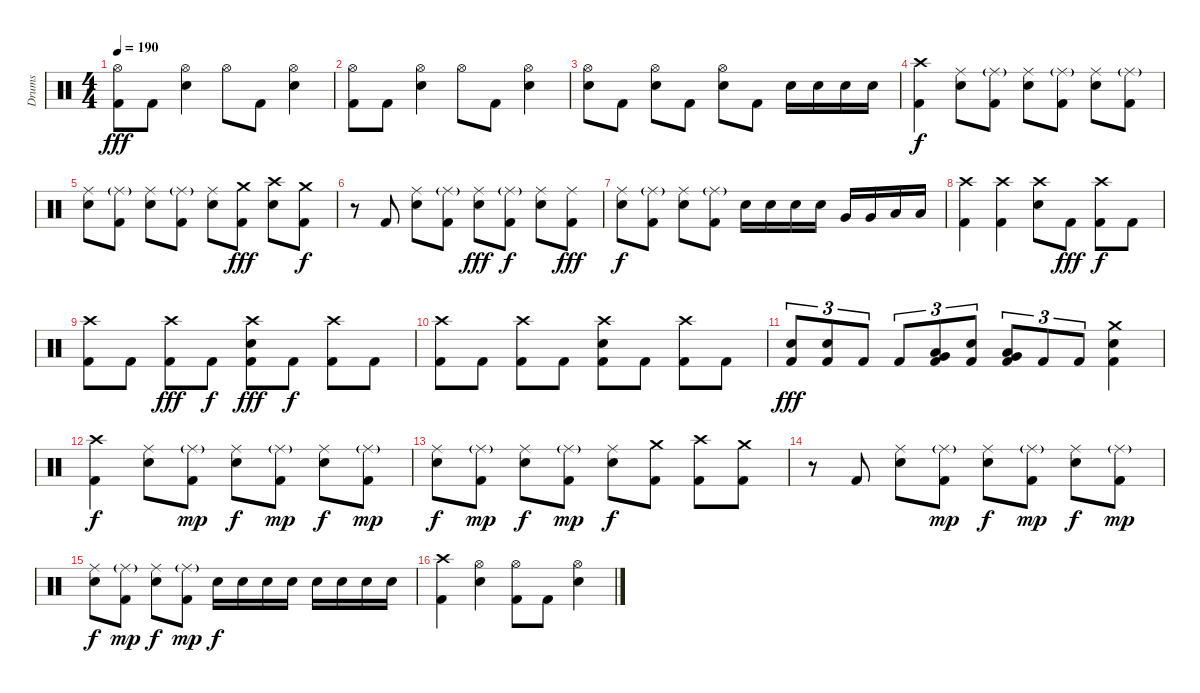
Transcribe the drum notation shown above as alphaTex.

\track ("Drums" "Drums") {instrument percussion}
\staff {score}
\articulation defaults
\ts (4 4)
\tempo 190
\clef neutral
\ks c
("Hi-Hat (open)" "Kick (hit) 2").8{dy fff} "Kick (hit) 2".8 ("Hi-Hat (open)" "Electric Snare (hit)").4 "Hi-Hat (open)".8 "Kick (hit) 2".8 ("Hi-Hat (open)" "Electric Snare (hit)").4 |
("Hi-Hat (open)" "Kick (hit) 2").8 "Kick (hit) 2".8 ("Hi-Hat (open)" "Electric Snare (hit)").4 "Hi-Hat (open)".8 "Kick (hit) 2".8 ("Hi-Hat (open)" "Electric Snare (hit)").4 |
("Hi-Hat (open)" "Electric Snare (hit)").8 "Kick (hit) 2".8 ("Hi-Hat (open)" "Electric Snare (hit)").8 "Kick (hit) 2".8 ("Hi-Hat (open)" "Electric Snare (hit)").8 "Kick (hit) 2".8 "Electric Snare (hit)".16 "Electric Snare (hit)".16 "Electric Snare (hit)".16 "Electric Snare (hit)".16 |
("Crash high (hit)" "Kick (hit) 2").4{dy f} ("Ride (middle)" "Electric Snare (hit)").8 ("Ride (middle)"{g} "Kick (hit) 2").8 ("Ride (middle)" "Electric Snare (hit)").8 ("Ride (middle)"{g} "Kick (hit) 2").8 ("Ride (middle)" "Electric Snare (hit)").8 ("Ride (middle)"{g} "Kick (hit) 2").8 |
("Ride (middle)" "Electric Snare (hit)").8 ("Ride (middle)"{g} "Kick (hit) 2").8 ("Ride (middle)" "Electric Snare (hit)").8 ("Ride (middle)"{g} "Kick (hit) 2").8 ("Ride (middle)" "Electric Snare (hit)").8 ("Crash medium (hit)" "Kick (hit) 2").8{dy fff} ("Crash high (hit)" "Electric Snare (hit)").8 ("Crash medium (hit)" "Kick (hit) 2").8{dy f} |
r.8 "Kick (hit) 2".8 ("Ride (middle)" "Electric Snare (hit)").8 ("Ride (middle)"{g} "Kick (hit) 2").8 ("Ride (middle)" "Electric Snare (hit)").8{dy fff} ("Ride (middle)"{g} "Kick (hit) 2").8{dy f} ("Ride (middle)" "Electric Snare (hit)").8 ("Ride (middle)" "Kick (hit) 2").8{dy fff} |
("Ride (middle)" "Electric Snare (hit)").8{dy f} ("Ride (middle)"{g} "Kick (hit) 2").8 ("Ride (middle)" "Electric Snare (hit)").8 ("Ride (middle)"{g} "Kick (hit) 2").8 "Electric Snare (hit)".16 "Electric Snare (hit)".16 "Electric Snare (hit)".16 "Electric Snare (hit)".16 "Very Low Tom (hit)".16 "Very Low Tom (hit)".16 "Low Floor Tom (hit)".16 "Low Floor Tom (hit)".16 |
("Crash high (hit)" "Kick (hit) 2").4 ("Crash high (hit)" "Kick (hit) 2").4 ("Crash high (hit)" "Electric Snare (hit)").8 "Kick (hit) 2".8{dy fff} ("Crash high (hit)" "Kick (hit) 2").8{dy f} "Kick (hit) 2".8 |
("Crash high (hit)" "Kick (hit) 2").8 "Kick (hit) 2".8 ("Crash high (hit)" "Kick (hit) 2").8{dy fff} "Kick (hit) 2".8{dy f} ("Crash high (hit)" "Electric Snare (hit)" "Kick (hit) 2").8{dy fff} "Kick (hit) 2".8{dy f} ("Crash high (hit)" "Kick (hit) 2").8 "Kick (hit) 2".8 |
("Crash high (hit)" "Kick (hit) 2").8 "Kick (hit) 2".8 ("Crash high (hit)" "Kick (hit) 2").8 "Kick (hit) 2".8 ("Crash high (hit)" "Electric Snare (hit)" "Kick (hit) 2").8 "Kick (hit) 2".8 ("Crash high (hit)" "Kick (hit) 2").8 "Kick (hit) 2".8 |
("Electric Snare (hit)" "Kick (hit) 2").8{tu (3 2) dy fff} ("Electric Snare (hit)" "Kick (hit) 2").8{tu (3 2)} "Kick (hit) 2".8{tu (3 2)} "Kick (hit) 2".8{tu (3 2)} ("Very Low Tom (hit)" "Low Floor Tom (hit)" "Kick (hit) 2").8{tu (3 2)} ("Electric Snare (hit)" "Kick (hit) 2").8{tu (3 2)} ("Very Low Tom (hit)" "Low Floor Tom (hit)" "Kick (hit) 2").8{tu (3 2)} "Kick (hit) 2".8{tu (3 2)} "Kick (hit) 2".8{tu (3 2)} ("Crash medium (hit)" "Electric Snare (hit)" "Kick (hit) 2").4 |
("Crash high (hit)" "Kick (hit) 2").4{dy f} ("Ride (middle)" "Electric Snare (hit)").8 ("Ride (middle)"{g} "Kick (hit) 2").8{dy mp} ("Ride (middle)" "Electric Snare (hit)").8{dy f} ("Ride (middle)"{g} "Kick (hit) 2").8{dy mp} ("Ride (middle)" "Electric Snare (hit)").8{dy f} ("Ride (middle)"{g} "Kick (hit) 2").8{dy mp} |
("Ride (middle)" "Electric Snare (hit)").8{dy f} ("Ride (middle)"{g} "Kick (hit) 2").8{dy mp} ("Ride (middle)" "Electric Snare (hit)").8{dy f} ("Ride (middle)"{g} "Kick (hit) 2").8{dy mp} ("Ride (middle)" "Electric Snare (hit)").8{dy f} ("Crash medium (hit)" "Kick (hit) 2").8 ("Crash high (hit)" "Kick (hit) 2").8 ("Crash medium (hit)" "Kick (hit) 2").8 |
r.8 "Kick (hit) 2".8 ("Ride (middle)" "Electric Snare (hit)").8 ("Ride (middle)"{g} "Kick (hit) 2").8{dy mp} ("Ride (middle)" "Electric Snare (hit)").8{dy f} ("Ride (middle)"{g} "Kick (hit) 2").8{dy mp} ("Ride (middle)" "Electric Snare (hit)").8{dy f} ("Ride (middle)"{g} "Kick (hit) 2").8{dy mp} |
("Ride (middle)" "Electric Snare (hit)").8{dy f} ("Ride (middle)"{g} "Kick (hit) 2").8{dy mp} ("Ride (middle)" "Electric Snare (hit)").8{dy f} ("Ride (middle)"{g} "Kick (hit) 2").8{dy mp} "Electric Snare (hit)".16{dy f} "Electric Snare (hit)".16 "Electric Snare (hit)".16 "Electric Snare (hit)".16 "Electric Snare (hit)".16 "Electric Snare (hit)".16 "Electric Snare (hit)".16 "Electric Snare (hit)".16 |
("Crash high (hit)" "Kick (hit) 2").4 ("Hi-Hat (open)" "Electric Snare (hit)").4 ("Hi-Hat (open)" "Kick (hit) 2").8 "Kick (hit) 2".8 ("Hi-Hat (open)" "Electric Snare (hit)").4
